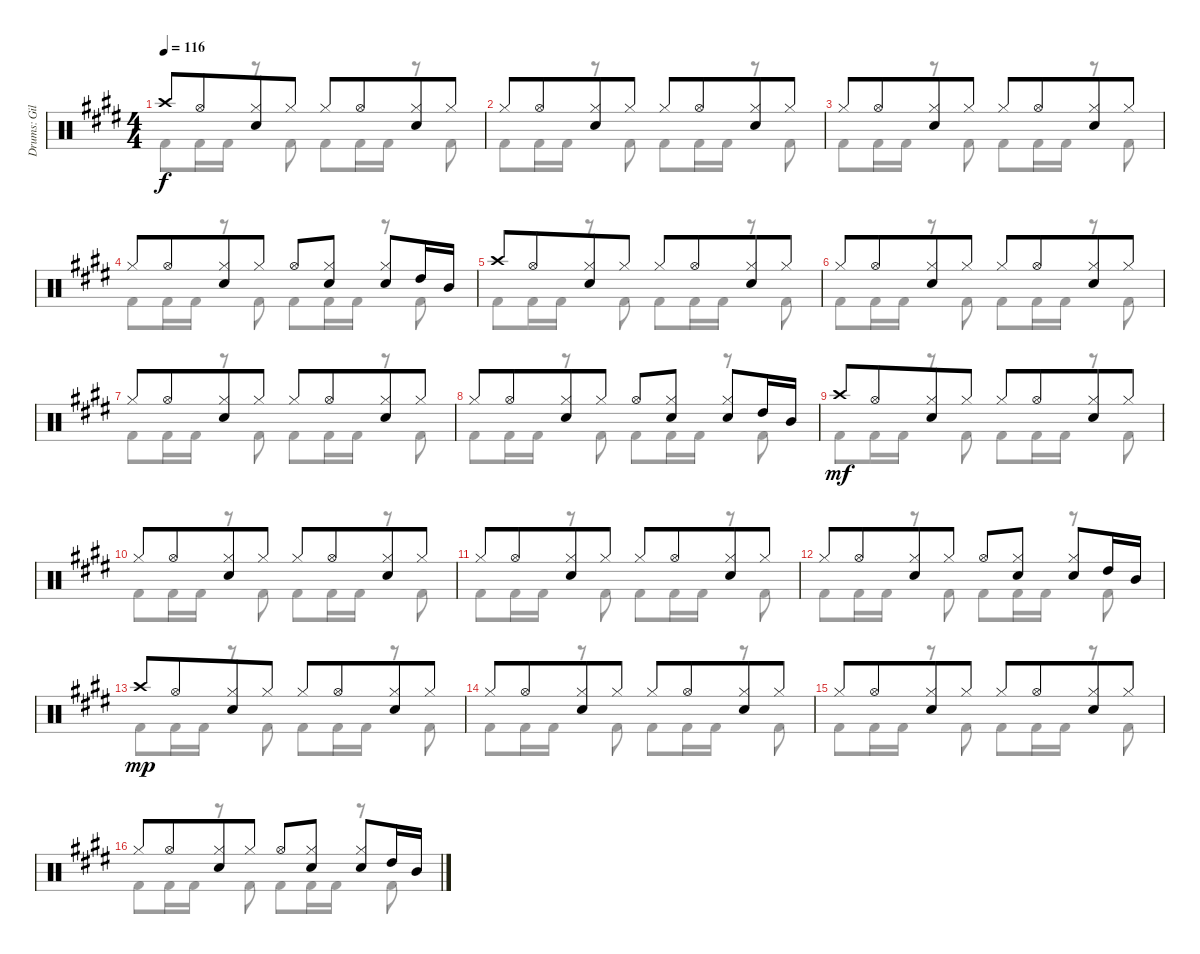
\track ("Drums: Gil" "Drums: Gil") {instrument percussion}
\staff {score}
\articulation defaults
\voice
\ts (4 4)
\tempo 116
\clef neutral
\ks e "Crash high (hit)".8{dy f} "Hi-Hat (open)".8{beam merge}
("Hi-Hat (closed)" "Snare (hit) 2").8 "Hi-Hat (closed)".8 "Hi-Hat (closed)".8 "Hi-Hat (open)".8{beam merge} ("Hi-Hat (closed)" "Snare (hit) 2").8 "Hi-Hat (closed)".8 |
"Hi-Hat (closed)".8 "Hi-Hat (open)".8{beam merge} ("Hi-Hat (closed)" "Snare (hit) 2").8 "Hi-Hat (closed)".8 "Hi-Hat (closed)".8 "Hi-Hat (open)".8{beam merge} ("Hi-Hat (closed)" "Snare (hit) 2").8 "Hi-Hat (closed)".8 |
"Hi-Hat (closed)".8 "Hi-Hat (open)".8{beam merge} ("Hi-Hat (closed)" "Snare (hit) 2").8 "Hi-Hat (closed)".8 "Hi-Hat (closed)".8 "Hi-Hat (open)".8{beam merge} ("Hi-Hat (closed)" "Snare (hit) 2").8 "Hi-Hat (closed)".8 |
"Hi-Hat (closed)".8 "Hi-Hat (open)".8{beam merge} ("Hi-Hat (closed)" "Snare (hit) 2").8 "Hi-Hat (closed)".8 "Hi-Hat (open)".8 ("Hi-Hat (closed)" "Snare (hit) 2").8 ("Hi-Hat (closed)" "Snare (hit) 2").8{beam merge} "High Tom (hit)".16 "Mid Tom (hit)".16 |
"Crash high (hit)".8 "Hi-Hat (open)".8{beam merge} ("Hi-Hat (closed)" "Snare (hit) 2").8 "Hi-Hat (closed)".8 "Hi-Hat (closed)".8 "Hi-Hat (open)".8{beam merge} ("Hi-Hat (closed)" "Snare (hit) 2").8 "Hi-Hat (closed)".8 |
"Hi-Hat (closed)".8 "Hi-Hat (open)".8{beam merge} ("Hi-Hat (closed)" "Snare (hit) 2").8 "Hi-Hat (closed)".8 "Hi-Hat (closed)".8 "Hi-Hat (open)".8{beam merge} ("Hi-Hat (closed)" "Snare (hit) 2").8 "Hi-Hat (closed)".8 |
"Hi-Hat (closed)".8 "Hi-Hat (open)".8{beam merge} ("Hi-Hat (closed)" "Snare (hit) 2").8 "Hi-Hat (closed)".8 "Hi-Hat (closed)".8 "Hi-Hat (open)".8{beam merge} ("Hi-Hat (closed)" "Snare (hit) 2").8 "Hi-Hat (closed)".8 |
"Hi-Hat (closed)".8 "Hi-Hat (open)".8{beam merge} ("Hi-Hat (closed)" "Snare (hit) 2").8 "Hi-Hat (closed)".8 "Hi-Hat (open)".8 ("Hi-Hat (closed)" "Snare (hit) 2").8 ("Hi-Hat (closed)" "Snare (hit) 2").8{beam merge} "High Tom (hit)".16 "Mid Tom (hit)".16 |
"Crash high (hit)".8{dy mf volume 7} "Hi-Hat (open)".8{beam merge} ("Hi-Hat (closed)" "Snare (hit) 2").8 "Hi-Hat (closed)".8 "Hi-Hat (closed)".8 "Hi-Hat (open)".8{beam merge} ("Hi-Hat (closed)" "Snare (hit) 2").8 "Hi-Hat (closed)".8 |
"Hi-Hat (closed)".8 "Hi-Hat (open)".8{beam merge} ("Hi-Hat (closed)" "Snare (hit) 2").8 "Hi-Hat (closed)".8 "Hi-Hat (closed)".8 "Hi-Hat (open)".8{beam merge} ("Hi-Hat (closed)" "Snare (hit) 2").8 "Hi-Hat (closed)".8 |
"Hi-Hat (closed)".8 "Hi-Hat (open)".8{beam merge} ("Hi-Hat (closed)" "Snare (hit) 2").8 "Hi-Hat (closed)".8 "Hi-Hat (closed)".8 "Hi-Hat (open)".8{beam merge} ("Hi-Hat (closed)" "Snare (hit) 2").8 "Hi-Hat (closed)".8 |
"Hi-Hat (closed)".8 "Hi-Hat (open)".8{beam merge} ("Hi-Hat (closed)" "Snare (hit) 2").8 "Hi-Hat (closed)".8 "Hi-Hat (open)".8 ("Hi-Hat (closed)" "Snare (hit) 2").8 ("Hi-Hat (closed)" "Snare (hit) 2").8{beam merge} "High Tom (hit)".16 "Mid Tom (hit)".16 |
"Crash high (hit)".8{dy mp volume 0} "Hi-Hat (open)".8{beam merge} ("Hi-Hat (closed)" "Snare (hit) 2").8 "Hi-Hat (closed)".8 "Hi-Hat (closed)".8 "Hi-Hat (open)".8{beam merge} ("Hi-Hat (closed)" "Snare (hit) 2").8 "Hi-Hat (closed)".8 |
"Hi-Hat (closed)".8 "Hi-Hat (open)".8{beam merge} ("Hi-Hat (closed)" "Snare (hit) 2").8 "Hi-Hat (closed)".8 "Hi-Hat (closed)".8 "Hi-Hat (open)".8{beam merge} ("Hi-Hat (closed)" "Snare (hit) 2").8 "Hi-Hat (closed)".8 |
"Hi-Hat (closed)".8 "Hi-Hat (open)".8{beam merge} ("Hi-Hat (closed)" "Snare (hit) 2").8 "Hi-Hat (closed)".8 "Hi-Hat (closed)".8 "Hi-Hat (open)".8{beam merge} ("Hi-Hat (closed)" "Snare (hit) 2").8 "Hi-Hat (closed)".8 |
"Hi-Hat (closed)".8 "Hi-Hat (open)".8{beam merge} ("Hi-Hat (closed)" "Snare (hit) 2").8 "Hi-Hat (closed)".8 "Hi-Hat (open)".8 ("Hi-Hat (closed)" "Snare (hit) 2").8 ("Hi-Hat (closed)" "Snare (hit) 2").8{beam merge} "High Tom (hit)".16 "Mid Tom (hit)".16
\voice
\clef neutral
\ottava regular
\simile none
\ks e "Kick (hit) 2".8{dy f} "Kick (hit) 2".16 "Kick (hit) 2".16
r.8 "Kick (hit) 2".8 "Kick (hit) 2".8 "Kick (hit) 2".16 "Kick (hit) 2".16 r.8 "Kick (hit) 2".8 |
"Kick (hit) 2".8 "Kick (hit) 2".16 "Kick (hit) 2".16 r.8 "Kick (hit) 2".8 "Kick (hit) 2".8 "Kick (hit) 2".16 "Kick (hit) 2".16 r.8 "Kick (hit) 2".8 |
"Kick (hit) 2".8 "Kick (hit) 2".16 "Kick (hit) 2".16 r.8 "Kick (hit) 2".8 "Kick (hit) 2".8 "Kick (hit) 2".16 "Kick (hit) 2".16 r.8 "Kick (hit) 2".8 |
"Kick (hit) 2".8 "Kick (hit) 2".16 "Kick (hit) 2".16 r.8 "Kick (hit) 2".8 "Kick (hit) 2".8 "Kick (hit) 2".16 "Kick (hit) 2".16 r.8 "Kick (hit) 2".8 |
"Kick (hit) 2".8 "Kick (hit) 2".16 "Kick (hit) 2".16 r.8 "Kick (hit) 2".8 "Kick (hit) 2".8 "Kick (hit) 2".16 "Kick (hit) 2".16 r.8 "Kick (hit) 2".8 |
"Kick (hit) 2".8 "Kick (hit) 2".16 "Kick (hit) 2".16 r.8 "Kick (hit) 2".8 "Kick (hit) 2".8 "Kick (hit) 2".16 "Kick (hit) 2".16 r.8 "Kick (hit) 2".8 |
"Kick (hit) 2".8 "Kick (hit) 2".16 "Kick (hit) 2".16 r.8 "Kick (hit) 2".8 "Kick (hit) 2".8 "Kick (hit) 2".16 "Kick (hit) 2".16 r.8 "Kick (hit) 2".8 |
"Kick (hit) 2".8 "Kick (hit) 2".16 "Kick (hit) 2".16 r.8 "Kick (hit) 2".8 "Kick (hit) 2".8 "Kick (hit) 2".16 "Kick (hit) 2".16 r.8 "Kick (hit) 2".8 |
"Kick (hit) 2".8{dy mf} "Kick (hit) 2".16 "Kick (hit) 2".16 r.8 "Kick (hit) 2".8 "Kick (hit) 2".8 "Kick (hit) 2".16 "Kick (hit) 2".16 r.8 "Kick (hit) 2".8 |
"Kick (hit) 2".8 "Kick (hit) 2".16 "Kick (hit) 2".16 r.8 "Kick (hit) 2".8 "Kick (hit) 2".8 "Kick (hit) 2".16 "Kick (hit) 2".16 r.8 "Kick (hit) 2".8 |
"Kick (hit) 2".8 "Kick (hit) 2".16 "Kick (hit) 2".16 r.8 "Kick (hit) 2".8 "Kick (hit) 2".8 "Kick (hit) 2".16 "Kick (hit) 2".16 r.8 "Kick (hit) 2".8 |
"Kick (hit) 2".8 "Kick (hit) 2".16 "Kick (hit) 2".16 r.8 "Kick (hit) 2".8 "Kick (hit) 2".8 "Kick (hit) 2".16 "Kick (hit) 2".16 r.8 "Kick (hit) 2".8 |
"Kick (hit) 2".8{dy mp} "Kick (hit) 2".16 "Kick (hit) 2".16 r.8 "Kick (hit) 2".8 "Kick (hit) 2".8 "Kick (hit) 2".16 "Kick (hit) 2".16 r.8 "Kick (hit) 2".8 |
"Kick (hit) 2".8 "Kick (hit) 2".16 "Kick (hit) 2".16 r.8 "Kick (hit) 2".8 "Kick (hit) 2".8 "Kick (hit) 2".16 "Kick (hit) 2".16 r.8 "Kick (hit) 2".8 |
"Kick (hit) 2".8 "Kick (hit) 2".16 "Kick (hit) 2".16 r.8 "Kick (hit) 2".8 "Kick (hit) 2".8 "Kick (hit) 2".16 "Kick (hit) 2".16 r.8 "Kick (hit) 2".8 |
"Kick (hit) 2".8 "Kick (hit) 2".16 "Kick (hit) 2".16 r.8 "Kick (hit) 2".8 "Kick (hit) 2".8 "Kick (hit) 2".16 "Kick (hit) 2".16 r.8 "Kick (hit) 2".8
